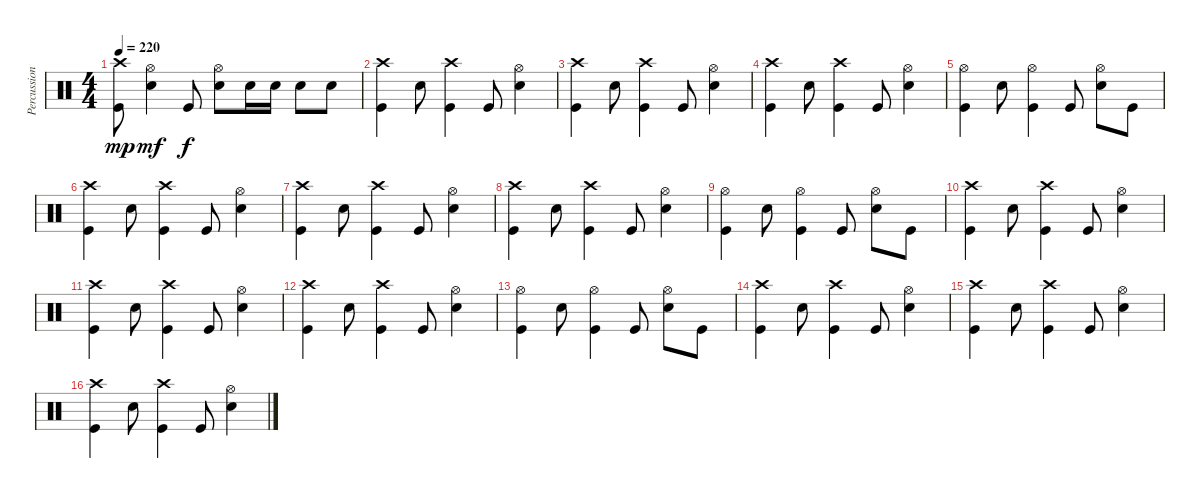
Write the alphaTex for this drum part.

\track ("Percussion" "Percussion") {instrument percussion}
\staff {score}
\articulation defaults
\ts (4 4)
\tempo 220
\clef neutral
\ks c
("Crash high (hit)" "Kick (hit)").8{dy mp} ("Hi-Hat (open)" "Electric Snare (hit)").4{dy mf} "Kick (hit)".8{dy f} ("Hi-Hat (open)" "Electric Snare (hit)").8 "Electric Snare (hit)".16 "Electric Snare (hit)".16 "Electric Snare (hit)".8 "Electric Snare (hit)".8 |
("Crash high (hit)" "Kick (hit)").4 "Electric Snare (hit)".8 ("Crash high (hit)" "Kick (hit)").4 "Kick (hit)".8 ("Hi-Hat (open)" "Electric Snare (hit)").4 |
("Crash high (hit)" "Kick (hit)").4 "Electric Snare (hit)".8 ("Crash high (hit)" "Kick (hit)").4 "Kick (hit)".8 ("Hi-Hat (open)" "Electric Snare (hit)").4 |
("Crash high (hit)" "Kick (hit)").4 "Electric Snare (hit)".8 ("Crash high (hit)" "Kick (hit)").4 "Kick (hit)".8 ("Hi-Hat (open)" "Electric Snare (hit)").4 |
("Hi-Hat (open)" "Kick (hit)").4 "Electric Snare (hit)".8 ("Hi-Hat (open)" "Kick (hit)").4 "Kick (hit)".8 ("Hi-Hat (open)" "Electric Snare (hit)").8 "Kick (hit)".8 |
("Crash high (hit)" "Kick (hit)").4 "Electric Snare (hit)".8 ("Crash high (hit)" "Kick (hit)").4 "Kick (hit)".8 ("Hi-Hat (open)" "Electric Snare (hit)").4 |
("Crash high (hit)" "Kick (hit)").4 "Electric Snare (hit)".8 ("Crash high (hit)" "Kick (hit)").4 "Kick (hit)".8 ("Hi-Hat (open)" "Electric Snare (hit)").4 |
("Crash high (hit)" "Kick (hit)").4 "Electric Snare (hit)".8 ("Crash high (hit)" "Kick (hit)").4 "Kick (hit)".8 ("Hi-Hat (open)" "Electric Snare (hit)").4 |
("Hi-Hat (open)" "Kick (hit)").4 "Electric Snare (hit)".8 ("Hi-Hat (open)" "Kick (hit)").4 "Kick (hit)".8 ("Hi-Hat (open)" "Electric Snare (hit)").8 "Kick (hit)".8 |
("Crash high (hit)" "Kick (hit)").4 "Electric Snare (hit)".8 ("Crash high (hit)" "Kick (hit)").4 "Kick (hit)".8 ("Hi-Hat (open)" "Electric Snare (hit)").4 |
("Crash high (hit)" "Kick (hit)").4 "Electric Snare (hit)".8 ("Crash high (hit)" "Kick (hit)").4 "Kick (hit)".8 ("Hi-Hat (open)" "Electric Snare (hit)").4 |
("Crash high (hit)" "Kick (hit)").4 "Electric Snare (hit)".8 ("Crash high (hit)" "Kick (hit)").4 "Kick (hit)".8 ("Hi-Hat (open)" "Electric Snare (hit)").4 |
("Hi-Hat (open)" "Kick (hit)").4 "Electric Snare (hit)".8 ("Hi-Hat (open)" "Kick (hit)").4 "Kick (hit)".8 ("Hi-Hat (open)" "Electric Snare (hit)").8 "Kick (hit)".8 |
("Crash high (hit)" "Kick (hit)").4 "Electric Snare (hit)".8 ("Crash high (hit)" "Kick (hit)").4 "Kick (hit)".8 ("Hi-Hat (open)" "Electric Snare (hit)").4 |
("Crash high (hit)" "Kick (hit)").4 "Electric Snare (hit)".8 ("Crash high (hit)" "Kick (hit)").4 "Kick (hit)".8 ("Hi-Hat (open)" "Electric Snare (hit)").4 |
("Crash high (hit)" "Kick (hit)").4 "Electric Snare (hit)".8 ("Crash high (hit)" "Kick (hit)").4 "Kick (hit)".8 ("Hi-Hat (open)" "Electric Snare (hit)").4
